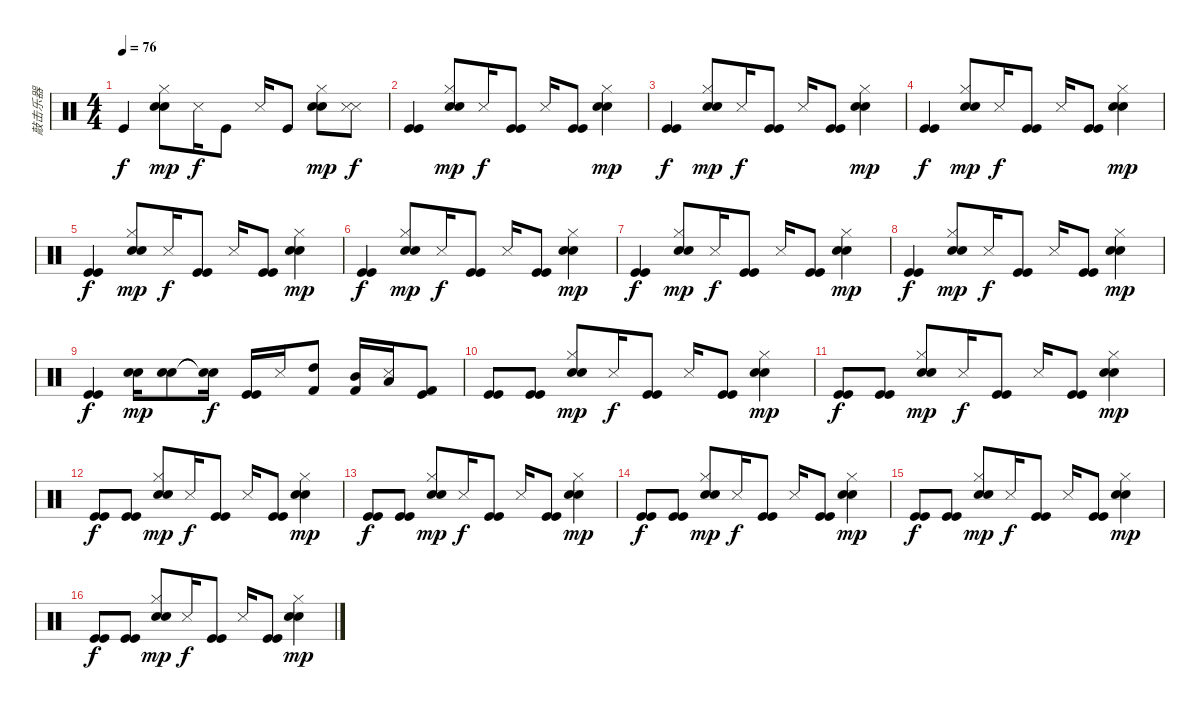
\track ("敲击乐器" "敲击乐器") {instrument percussion}
\staff {score}
\articulation defaults
\ts (4 4)
\tempo 76
\clef neutral
\ks c "Kick (hit)".4{dy f}
("Snare (hit) 2" "Metronome (bell)" "Hi-Hat (closed)").8{dy mp} "Metronome (hit)".16{dy f} "Kick (hit)".8 "Metronome (hit)".16 "Kick (hit)".8 ("Electric Snare (hit)" "Metronome (bell)" "Hi-Hat (closed)").8{dy mp} ("Metronome (hit)" "Metronome (hit)").8{dy f} |
("Kick (hit)" "Kick (hit)").4 ("Electric Snare (hit)" "Metronome (bell)" "Hi-Hat (closed)").8{dy mp} "Metronome (hit)".16{dy f} ("Kick (hit)" "Kick (hit)").8 "Metronome (hit)".16 ("Kick (hit)" "Kick (hit)").8 ("Electric Snare (hit)" "Metronome (bell)" "Hi-Hat (closed)").4{dy mp} |
("Kick (hit)" "Kick (hit)").4{dy f} ("Electric Snare (hit)" "Metronome (bell)" "Hi-Hat (closed)").8{dy mp} "Metronome (hit)".16{dy f} ("Kick (hit)" "Kick (hit)").8 "Metronome (hit)".16 ("Kick (hit)" "Kick (hit)").8 ("Electric Snare (hit)" "Metronome (bell)" "Hi-Hat (closed)").4{dy mp} |
("Kick (hit)" "Kick (hit)").4{dy f} ("Electric Snare (hit)" "Metronome (bell)" "Hi-Hat (closed)").8{dy mp} "Metronome (hit)".16{dy f} ("Kick (hit)" "Kick (hit)").8 "Metronome (hit)".16 ("Kick (hit)" "Kick (hit)").8 ("Electric Snare (hit)" "Metronome (bell)" "Hi-Hat (closed)").4{dy mp} |
("Kick (hit)" "Kick (hit)").4{dy f} ("Electric Snare (hit)" "Metronome (bell)" "Hi-Hat (closed)").8{dy mp} "Metronome (hit)".16{dy f} ("Kick (hit)" "Kick (hit)").8 "Metronome (hit)".16 ("Kick (hit)" "Kick (hit)").8 ("Electric Snare (hit)" "Metronome (bell)" "Hi-Hat (closed)").4{dy mp} |
("Kick (hit)" "Kick (hit)").4{dy f} ("Electric Snare (hit)" "Metronome (bell)" "Hi-Hat (closed)").8{dy mp} "Metronome (hit)".16{dy f} ("Kick (hit)" "Kick (hit)").8 "Metronome (hit)".16 ("Kick (hit)" "Kick (hit)").8 ("Electric Snare (hit)" "Metronome (bell)" "Hi-Hat (closed)").4{dy mp} |
("Kick (hit)" "Kick (hit)").4{dy f} ("Electric Snare (hit)" "Metronome (bell)" "Hi-Hat (closed)").8{dy mp} "Metronome (hit)".16{dy f} ("Kick (hit)" "Kick (hit)").8 "Metronome (hit)".16 ("Kick (hit)" "Kick (hit)").8 ("Electric Snare (hit)" "Metronome (bell)" "Hi-Hat (closed)").4{dy mp} |
("Kick (hit)" "Kick (hit)").4{dy f} ("Electric Snare (hit)" "Metronome (bell)" "Hi-Hat (closed)").8{dy mp} "Metronome (hit)".16{dy f} ("Kick (hit)" "Kick (hit)").8 "Metronome (hit)".16 ("Kick (hit)" "Kick (hit)").8 ("Electric Snare (hit)" "Metronome (bell)" "Hi-Hat (closed)").4{dy mp} |
("Kick (hit)" "Kick (hit)").4{dy f} ("Electric Snare (hit)" "Metronome (bell)").16{dy mp} ("Electric Snare (hit)" "Metronome (bell)").8 ("Snare (hit)"{t} "Snare (hit)"{t}).16{dy f} ("Kick (hit)" "Kick (hit)").16 "Metronome (hit)".16 ("High Tom (hit)" "Kick (hit) 2").8 ("Mid Tom (hit)" "Kick (hit) 2").16 ("Low Tom (hit)" "Metronome (hit)").16 ("Kick (hit)" "Kick (hit) 2").8 |
("Kick (hit)" "Kick (hit)").8 ("Kick (hit)" "Kick (hit)").8 ("Electric Snare (hit)" "Metronome (bell)" "Hi-Hat (closed)").8{dy mp} "Metronome (hit)".16{dy f} ("Kick (hit)" "Kick (hit)").8 "Metronome (hit)".16 ("Kick (hit)" "Kick (hit)").8 ("Electric Snare (hit)" "Metronome (bell)" "Hi-Hat (closed)").4{dy mp} |
("Kick (hit)" "Kick (hit)").8{dy f} ("Kick (hit)" "Kick (hit)").8 ("Electric Snare (hit)" "Metronome (bell)" "Hi-Hat (closed)").8{dy mp} "Metronome (hit)".16{dy f} ("Kick (hit)" "Kick (hit)").8 "Metronome (hit)".16 ("Kick (hit)" "Kick (hit)").8 ("Electric Snare (hit)" "Metronome (bell)" "Hi-Hat (closed)").4{dy mp} |
("Kick (hit)" "Kick (hit)").8{dy f} ("Kick (hit)" "Kick (hit)").8 ("Electric Snare (hit)" "Metronome (bell)" "Hi-Hat (closed)").8{dy mp} "Metronome (hit)".16{dy f} ("Kick (hit)" "Kick (hit)").8 "Metronome (hit)".16 ("Kick (hit)" "Kick (hit)").8 ("Electric Snare (hit)" "Metronome (bell)" "Hi-Hat (closed)").4{dy mp} |
("Kick (hit)" "Kick (hit)").8{dy f} ("Kick (hit)" "Kick (hit)").8 ("Electric Snare (hit)" "Metronome (bell)" "Hi-Hat (closed)").8{dy mp} "Metronome (hit)".16{dy f} ("Kick (hit)" "Kick (hit)").8 "Metronome (hit)".16 ("Kick (hit)" "Kick (hit)").8 ("Electric Snare (hit)" "Metronome (bell)" "Hi-Hat (closed)").4{dy mp} |
("Kick (hit)" "Kick (hit)").8{dy f} ("Kick (hit)" "Kick (hit)").8 ("Electric Snare (hit)" "Metronome (bell)" "Hi-Hat (closed)").8{dy mp} "Metronome (hit)".16{dy f} ("Kick (hit)" "Kick (hit)").8 "Metronome (hit)".16 ("Kick (hit)" "Kick (hit)").8 ("Electric Snare (hit)" "Metronome (bell)" "Hi-Hat (closed)").4{dy mp} |
("Kick (hit)" "Kick (hit)").8{dy f} ("Kick (hit)" "Kick (hit)").8 ("Electric Snare (hit)" "Metronome (bell)" "Hi-Hat (closed)").8{dy mp} "Metronome (hit)".16{dy f} ("Kick (hit)" "Kick (hit)").8 "Metronome (hit)".16 ("Kick (hit)" "Kick (hit)").8 ("Electric Snare (hit)" "Metronome (bell)" "Hi-Hat (closed)").4{dy mp} |
("Kick (hit)" "Kick (hit)").8{dy f} ("Kick (hit)" "Kick (hit)").8 ("Electric Snare (hit)" "Metronome (bell)" "Hi-Hat (closed)").8{dy mp} "Metronome (hit)".16{dy f} ("Kick (hit)" "Kick (hit)").8 "Metronome (hit)".16 ("Kick (hit)" "Kick (hit)").8 ("Electric Snare (hit)" "Metronome (bell)" "Hi-Hat (closed)").4{dy mp}
